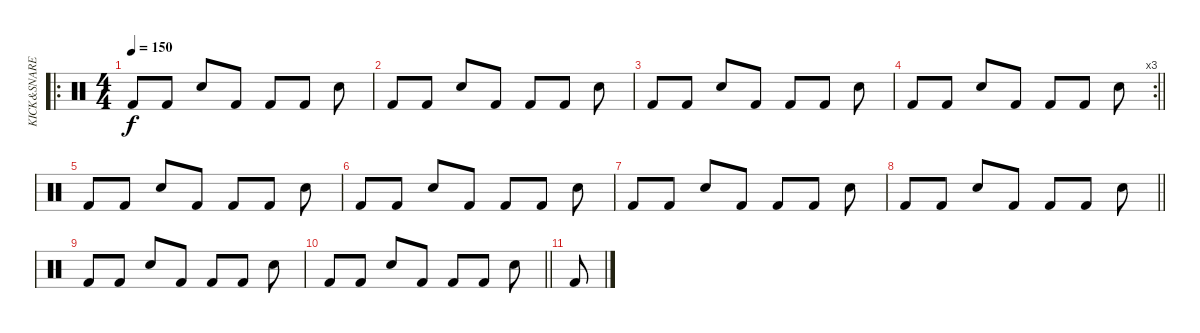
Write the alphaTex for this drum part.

\track ("KICK&SNARE" "KICK&SNARE") {instrument percussion}
\staff {score}
\articulation defaults
\ro
\ts (4 4)
\tempo 150
\clef neutral
\ks c "Kick (hit) 2".8{dy f} "Kick (hit) 2".8 "Snare (hit) 2".8 "Kick (hit) 2".8 "Kick (hit) 2".8 "Kick (hit) 2".8 "Snare (hit) 2".8
|
"Kick (hit) 2".8 "Kick (hit) 2".8 "Snare (hit) 2".8 "Kick (hit) 2".8 "Kick (hit) 2".8 "Kick (hit) 2".8 "Snare (hit) 2".8 |
"Kick (hit) 2".8 "Kick (hit) 2".8 "Snare (hit) 2".8 "Kick (hit) 2".8 "Kick (hit) 2".8 "Kick (hit) 2".8 "Snare (hit) 2".8 |
\rc 3
\barLineRight lightlight "Kick (hit) 2".8 "Kick (hit) 2".8 "Snare (hit) 2".8 "Kick (hit) 2".8 "Kick (hit) 2".8 "Kick (hit) 2".8 "Snare (hit) 2".8
|
"Kick (hit) 2".8 "Kick (hit) 2".8 "Snare (hit) 2".8 "Kick (hit) 2".8 "Kick (hit) 2".8 "Kick (hit) 2".8 "Snare (hit) 2".8 |
"Kick (hit) 2".8 "Kick (hit) 2".8 "Snare (hit) 2".8 "Kick (hit) 2".8 "Kick (hit) 2".8 "Kick (hit) 2".8 "Snare (hit) 2".8 |
"Kick (hit) 2".8 "Kick (hit) 2".8 "Snare (hit) 2".8 "Kick (hit) 2".8 "Kick (hit) 2".8 "Kick (hit) 2".8 "Snare (hit) 2".8 |
\barLineRight lightlight "Kick (hit) 2".8 "Kick (hit) 2".8 "Snare (hit) 2".8 "Kick (hit) 2".8 "Kick (hit) 2".8 "Kick (hit) 2".8 "Snare (hit) 2".8
|
"Kick (hit) 2".8 "Kick (hit) 2".8 "Snare (hit) 2".8 "Kick (hit) 2".8 "Kick (hit) 2".8 "Kick (hit) 2".8 "Snare (hit) 2".8 |
\barLineRight lightlight "Kick (hit) 2".8 "Kick (hit) 2".8 "Snare (hit) 2".8 "Kick (hit) 2".8 "Kick (hit) 2".8 "Kick (hit) 2".8 "Snare (hit) 2".8
|
"Kick (hit) 2".8
